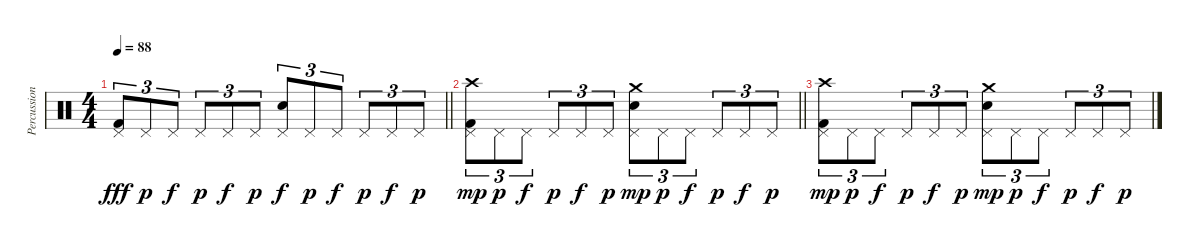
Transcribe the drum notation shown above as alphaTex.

\track ("Percussion" "Percussion") {instrument percussion}
\staff {score}
\articulation defaults
\ts (4 4)
\tempo 88
\clef neutral
\barLineRight lightlight
\ks c
("Kick (hit) 2" "Pedal Hi-Hat (hit)").8{tu (3 2) dy fff} "Pedal Hi-Hat (hit)".8{tu (3 2) dy p} "Pedal Hi-Hat (hit)".8{tu (3 2) dy f} "Pedal Hi-Hat (hit)".8{tu (3 2) dy p} "Pedal Hi-Hat (hit)".8{tu (3 2) dy f} "Pedal Hi-Hat (hit)".8{tu (3 2) dy p} ("Electric Snare (hit)" "Pedal Hi-Hat (hit)").8{tu (3 2) dy f} "Pedal Hi-Hat (hit)".8{tu (3 2) dy p} "Pedal Hi-Hat (hit)".8{tu (3 2) dy f} "Pedal Hi-Hat (hit)".8{tu (3 2) dy p} "Pedal Hi-Hat (hit)".8{tu (3 2) dy f} "Pedal Hi-Hat (hit)".8{tu (3 2) dy p} |
\barLineRight lightlight
("Kick (hit) 2" "Pedal Hi-Hat (hit)" "Crash high (hit)").8{tu (3 2) dy mp} "Pedal Hi-Hat (hit)".8{tu (3 2) dy p} "Pedal Hi-Hat (hit)".8{tu (3 2) dy f} "Pedal Hi-Hat (hit)".8{tu (3 2) dy p} "Pedal Hi-Hat (hit)".8{tu (3 2) dy f} "Pedal Hi-Hat (hit)".8{tu (3 2) dy p} ("Electric Snare (hit)" "Pedal Hi-Hat (hit)" "Crash medium (hit)").8{tu (3 2) dy mp} "Pedal Hi-Hat (hit)".8{tu (3 2) dy p} "Pedal Hi-Hat (hit)".8{tu (3 2) dy f} "Pedal Hi-Hat (hit)".8{tu (3 2) dy p} "Pedal Hi-Hat (hit)".8{tu (3 2) dy f} "Pedal Hi-Hat (hit)".8{tu (3 2) dy p} |
("Kick (hit) 2" "Pedal Hi-Hat (hit)" "Crash high (hit)").8{tu (3 2) dy mp} "Pedal Hi-Hat (hit)".8{tu (3 2) dy p} "Pedal Hi-Hat (hit)".8{tu (3 2) dy f} "Pedal Hi-Hat (hit)".8{tu (3 2) dy p} "Pedal Hi-Hat (hit)".8{tu (3 2) dy f} "Pedal Hi-Hat (hit)".8{tu (3 2) dy p} ("Electric Snare (hit)" "Pedal Hi-Hat (hit)" "Crash medium (hit)").8{tu (3 2) dy mp} "Pedal Hi-Hat (hit)".8{tu (3 2) dy p} "Pedal Hi-Hat (hit)".8{tu (3 2) dy f} "Pedal Hi-Hat (hit)".8{tu (3 2) dy p} "Pedal Hi-Hat (hit)".8{tu (3 2) dy f} "Pedal Hi-Hat (hit)".8{tu (3 2) dy p}
